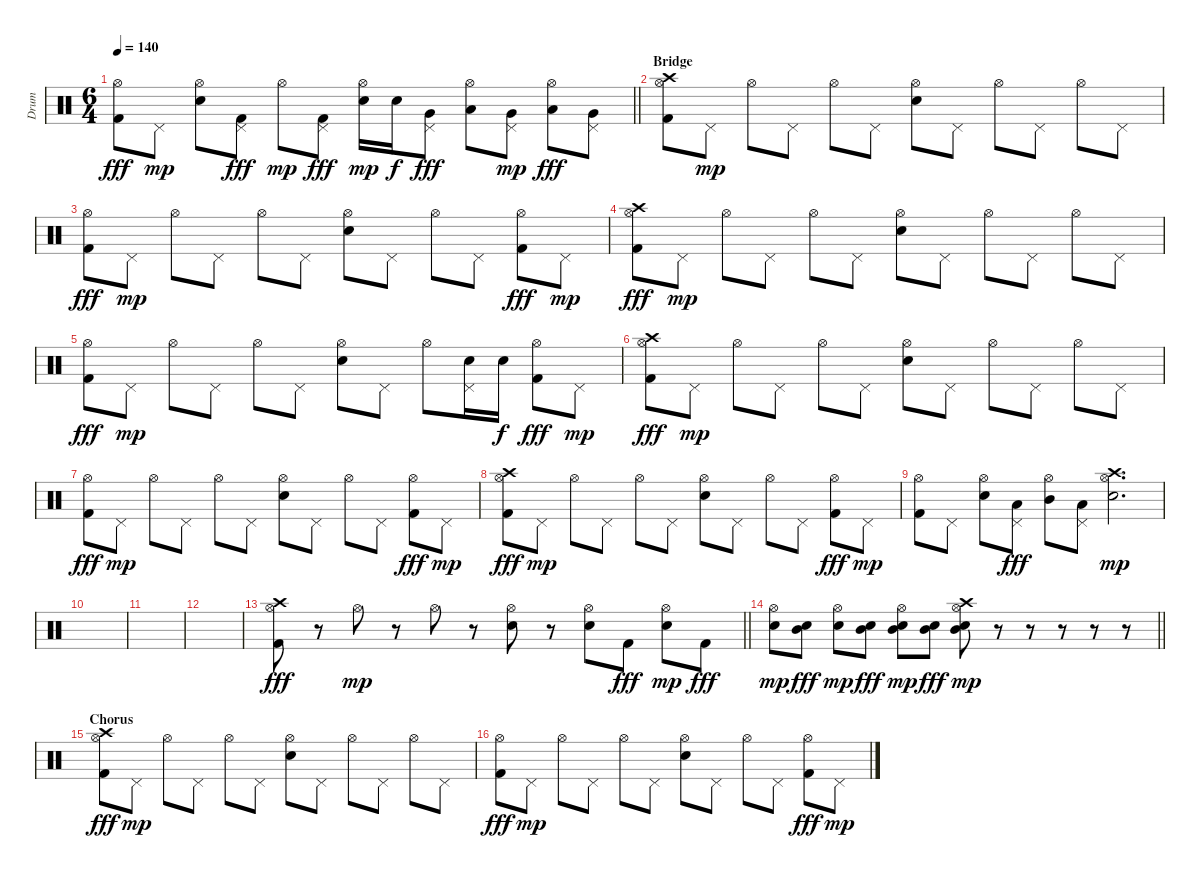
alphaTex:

\track ("Drum" "Drum") {instrument percussion}
\staff {score}
\articulation defaults
\ts (6 4)
\tempo 140
\clef neutral
\barLineRight lightlight
\ks c
("Hi-Hat (open)" "Kick (hit) 2").8{dy fff} "Pedal Hi-Hat (hit)".8{dy mp} ("Hi-Hat (open)" "Electric Snare (hit)").8 ("Pedal Hi-Hat (hit)" "Kick (hit) 2").8{dy fff} "Hi-Hat (open)".8{dy mp} ("Pedal Hi-Hat (hit)" "Kick (hit) 2").8{dy fff} ("Hi-Hat (open)" "Electric Snare (hit)").16{dy mp} "Electric Snare (hit)".16{dy f} ("Pedal Hi-Hat (hit)" "Very Low Tom (hit)").8{dy fff} ("Hi-Hat (open)" "Low Tom (hit)").8 ("Pedal Hi-Hat (hit)" "Very Low Tom (hit)").8{dy mp} ("Hi-Hat (open)" "Low Tom (hit)").8{dy fff} ("Pedal Hi-Hat (hit)" "Very Low Tom (hit)").8 |
\section ("" "Bridge")
("Hi-Hat (open)" "Kick (hit) 2" "Crash high (hit)").8 "Pedal Hi-Hat (hit)".8{dy mp} "Hi-Hat (open)".8 "Pedal Hi-Hat (hit)".8 "Hi-Hat (open)".8 "Pedal Hi-Hat (hit)".8 ("Hi-Hat (open)" "Electric Snare (hit)").8 "Pedal Hi-Hat (hit)".8 "Hi-Hat (open)".8 "Pedal Hi-Hat (hit)".8 "Hi-Hat (open)".8 "Pedal Hi-Hat (hit)".8 |
("Hi-Hat (open)" "Kick (hit) 2").8{dy fff} "Pedal Hi-Hat (hit)".8{dy mp} "Hi-Hat (open)".8 "Pedal Hi-Hat (hit)".8 "Hi-Hat (open)".8 "Pedal Hi-Hat (hit)".8 ("Hi-Hat (open)" "Electric Snare (hit)").8 "Pedal Hi-Hat (hit)".8 "Hi-Hat (open)".8 "Pedal Hi-Hat (hit)".8 ("Hi-Hat (open)" "Kick (hit) 2").8{dy fff} "Pedal Hi-Hat (hit)".8{dy mp} |
("Hi-Hat (open)" "Kick (hit) 2" "Crash high (hit)").8{dy fff} "Pedal Hi-Hat (hit)".8{dy mp} "Hi-Hat (open)".8 "Pedal Hi-Hat (hit)".8 "Hi-Hat (open)".8 "Pedal Hi-Hat (hit)".8 ("Hi-Hat (open)" "Electric Snare (hit)").8 "Pedal Hi-Hat (hit)".8 "Hi-Hat (open)".8 "Pedal Hi-Hat (hit)".8 "Hi-Hat (open)".8 "Pedal Hi-Hat (hit)".8 |
("Hi-Hat (open)" "Kick (hit) 2").8{dy fff} "Pedal Hi-Hat (hit)".8{dy mp} "Hi-Hat (open)".8 "Pedal Hi-Hat (hit)".8 "Hi-Hat (open)".8 "Pedal Hi-Hat (hit)".8 ("Hi-Hat (open)" "Electric Snare (hit)").8 "Pedal Hi-Hat (hit)".8 "Hi-Hat (open)".8 ("Pedal Hi-Hat (hit)" "Electric Snare (hit)").16 "Electric Snare (hit)".16{dy f} ("Hi-Hat (open)" "Kick (hit) 2").8{dy fff} "Pedal Hi-Hat (hit)".8{dy mp} |
("Hi-Hat (open)" "Kick (hit) 2" "Crash high (hit)").8{dy fff} "Pedal Hi-Hat (hit)".8{dy mp} "Hi-Hat (open)".8 "Pedal Hi-Hat (hit)".8 "Hi-Hat (open)".8 "Pedal Hi-Hat (hit)".8 ("Hi-Hat (open)" "Electric Snare (hit)").8 "Pedal Hi-Hat (hit)".8 "Hi-Hat (open)".8 "Pedal Hi-Hat (hit)".8 "Hi-Hat (open)".8 "Pedal Hi-Hat (hit)".8 |
("Hi-Hat (open)" "Kick (hit) 2").8{dy fff} "Pedal Hi-Hat (hit)".8{dy mp} "Hi-Hat (open)".8 "Pedal Hi-Hat (hit)".8 "Hi-Hat (open)".8 "Pedal Hi-Hat (hit)".8 ("Hi-Hat (open)" "Electric Snare (hit)").8 "Pedal Hi-Hat (hit)".8 "Hi-Hat (open)".8 "Pedal Hi-Hat (hit)".8 ("Hi-Hat (open)" "Kick (hit) 2").8{dy fff} "Pedal Hi-Hat (hit)".8{dy mp} |
("Hi-Hat (open)" "Kick (hit) 2" "Crash high (hit)").8{dy fff} "Pedal Hi-Hat (hit)".8{dy mp} "Hi-Hat (open)".8 "Pedal Hi-Hat (hit)".8 "Hi-Hat (open)".8 "Pedal Hi-Hat (hit)".8 ("Hi-Hat (open)" "Electric Snare (hit)").8 "Pedal Hi-Hat (hit)".8 "Hi-Hat (open)".8 "Pedal Hi-Hat (hit)".8 ("Hi-Hat (open)" "Kick (hit) 2").8{dy fff} "Pedal Hi-Hat (hit)".8{dy mp} |
("Hi-Hat (open)" "Kick (hit) 2").8 "Pedal Hi-Hat (hit)".8 ("Hi-Hat (open)" "Electric Snare (hit)").8 ("Pedal Hi-Hat (hit)" "Low Tom (hit)").8{dy fff} ("Hi-Hat (open)" "Mid Tom (hit)").8 ("Pedal Hi-Hat (hit)" "Low Tom (hit)").8 ("Hi-Hat (open)" "Electric Snare (hit)" "Crash high (hit)").2{d dy mp} |
|
|
|
\barLineRight lightlight
("Hi-Hat (open)" "Kick (hit) 2" "Crash high (hit)").8{dy fff} r.8 "Hi-Hat (open)".8{dy mp} r.8 "Hi-Hat (open)".8 r.8 ("Hi-Hat (open)" "Electric Snare (hit)").8 r.8 ("Hi-Hat (open)" "Electric Snare (hit)").8 "Kick (hit) 2".8{dy fff} ("Hi-Hat (open)" "Electric Snare (hit)").8{dy mp} "Kick (hit) 2".8{dy fff} |
\barLineRight lightlight
("Electric Snare (hit)" "Hi-Hat (open)").8{dy mp} ("Electric Snare (hit)" "Mid Tom (hit)").8{dy fff} ("Electric Snare (hit)" "Hi-Hat (open)").8{dy mp} ("Electric Snare (hit)" "Mid Tom (hit)").8{dy fff} ("Electric Snare (hit)" "Mid Tom (hit)" "Hi-Hat (open)").8{dy mp} ("Electric Snare (hit)" "Mid Tom (hit)").8{dy fff} ("Electric Snare (hit)" "Mid Tom (hit)" "Hi-Hat (open)" "Crash high (hit)").8{dy mp} r.8 r.8 r.8 r.8 r.8 |
\section ("" "Chorus")
("Hi-Hat (open)" "Kick (hit) 2" "Crash high (hit)").8{dy fff} "Pedal Hi-Hat (hit)".8{dy mp} "Hi-Hat (open)".8 "Pedal Hi-Hat (hit)".8 "Hi-Hat (open)".8 "Pedal Hi-Hat (hit)".8 ("Hi-Hat (open)" "Electric Snare (hit)").8 "Pedal Hi-Hat (hit)".8 "Hi-Hat (open)".8 "Pedal Hi-Hat (hit)".8 "Hi-Hat (open)".8 "Pedal Hi-Hat (hit)".8 |
("Hi-Hat (open)" "Kick (hit) 2").8{dy fff} "Pedal Hi-Hat (hit)".8{dy mp} "Hi-Hat (open)".8 "Pedal Hi-Hat (hit)".8 "Hi-Hat (open)".8 "Pedal Hi-Hat (hit)".8 ("Hi-Hat (open)" "Electric Snare (hit)").8 "Pedal Hi-Hat (hit)".8 "Hi-Hat (open)".8 "Pedal Hi-Hat (hit)".8 ("Hi-Hat (open)" "Kick (hit) 2").8{dy fff} "Pedal Hi-Hat (hit)".8{dy mp}
